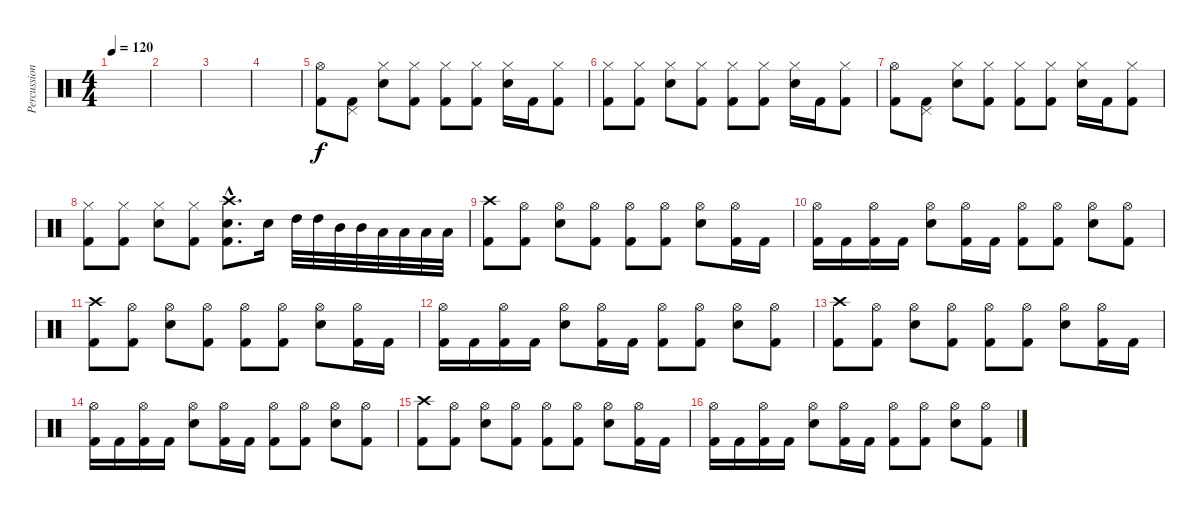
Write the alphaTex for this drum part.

\track ("Percussion" "Percussion") {instrument percussion}
\staff {score}
\articulation defaults
\ts (4 4)
\tempo 120
\clef neutral
\ks c
|
|
|
|
("Hi-Hat (open)" "Kick (hit) 2").8{volume 8} ("Pedal Hi-Hat (hit)" "Kick (hit) 2").8 ("Hi-Hat (closed)" "Snare (hit) 2").8 ("Hi-Hat (closed)" "Kick (hit) 2").8 ("Hi-Hat (closed)" "Kick (hit) 2").8 ("Hi-Hat (closed)" "Kick (hit) 2").8 ("Hi-Hat (closed)" "Snare (hit) 2").16 "Kick (hit) 2".16 ("Hi-Hat (closed)" "Kick (hit) 2").8 |
("Hi-Hat (closed)" "Kick (hit) 2").8 ("Hi-Hat (closed)" "Kick (hit) 2").8 ("Hi-Hat (closed)" "Snare (hit) 2").8 ("Hi-Hat (closed)" "Kick (hit) 2").8 ("Hi-Hat (closed)" "Kick (hit) 2").8 ("Hi-Hat (closed)" "Kick (hit) 2").8 ("Hi-Hat (closed)" "Snare (hit) 2").16 "Kick (hit) 2".16 ("Hi-Hat (closed)" "Kick (hit) 2").8 |
("Hi-Hat (open)" "Kick (hit) 2").8 ("Pedal Hi-Hat (hit)" "Kick (hit) 2").8 ("Hi-Hat (closed)" "Snare (hit) 2").8 ("Hi-Hat (closed)" "Kick (hit) 2").8 ("Hi-Hat (closed)" "Kick (hit) 2").8 ("Hi-Hat (closed)" "Kick (hit) 2").8 ("Hi-Hat (closed)" "Snare (hit) 2").16 "Kick (hit) 2".16 ("Hi-Hat (closed)" "Kick (hit) 2").8 |
("Hi-Hat (closed)" "Kick (hit) 2").8{volume 16} ("Hi-Hat (closed)" "Kick (hit) 2").8 ("Hi-Hat (closed)" "Snare (hit) 2").8 ("Hi-Hat (closed)" "Kick (hit) 2").8 ("Crash high (hit)"{hac} "Snare (hit) 2"{hac} "Kick (hit) 2"{hac}).8{d} "Snare (hit) 2".16 "High Tom (hit)".32 "High Tom (hit)".32 "Mid Tom (hit)".32 "Mid Tom (hit)".32 "Low Tom (hit)".32 "Low Tom (hit)".32 "Low Tom (hit)".32 "Low Tom (hit)".32 |
("Crash high (hit)" "Kick (hit) 2").8{volume 16} ("Hi-Hat (open)" "Kick (hit) 2").8 ("Hi-Hat (open)" "Snare (hit) 2").8 ("Hi-Hat (open)" "Kick (hit) 2").8 ("Hi-Hat (open)" "Kick (hit) 2").8 ("Hi-Hat (open)" "Kick (hit) 2").8 ("Hi-Hat (open)" "Snare (hit) 2").8 ("Hi-Hat (open)" "Kick (hit) 2").16 "Kick (hit) 2".16 |
("Hi-Hat (open)" "Kick (hit) 2").16 "Kick (hit) 2".16 ("Hi-Hat (open)" "Kick (hit) 2").16 "Kick (hit) 2".16 ("Hi-Hat (open)" "Snare (hit) 2").8 ("Hi-Hat (open)" "Kick (hit) 2").16 "Kick (hit) 2".16 ("Hi-Hat (open)" "Kick (hit) 2").8 ("Hi-Hat (open)" "Kick (hit) 2").8 ("Hi-Hat (open)" "Snare (hit) 2").8 ("Hi-Hat (open)" "Kick (hit) 2").8 |
("Crash high (hit)" "Kick (hit) 2").8{volume 16} ("Hi-Hat (open)" "Kick (hit) 2").8 ("Hi-Hat (open)" "Snare (hit) 2").8 ("Hi-Hat (open)" "Kick (hit) 2").8 ("Hi-Hat (open)" "Kick (hit) 2").8 ("Hi-Hat (open)" "Kick (hit) 2").8 ("Hi-Hat (open)" "Snare (hit) 2").8 ("Hi-Hat (open)" "Kick (hit) 2").16 "Kick (hit) 2".16 |
("Hi-Hat (open)" "Kick (hit) 2").16 "Kick (hit) 2".16 ("Hi-Hat (open)" "Kick (hit) 2").16 "Kick (hit) 2".16 ("Hi-Hat (open)" "Snare (hit) 2").8 ("Hi-Hat (open)" "Kick (hit) 2").16 "Kick (hit) 2".16 ("Hi-Hat (open)" "Kick (hit) 2").8 ("Hi-Hat (open)" "Kick (hit) 2").8 ("Hi-Hat (open)" "Snare (hit) 2").8 ("Hi-Hat (open)" "Kick (hit) 2").8 |
("Crash high (hit)" "Kick (hit) 2").8{volume 16} ("Hi-Hat (open)" "Kick (hit) 2").8 ("Hi-Hat (open)" "Snare (hit) 2").8 ("Hi-Hat (open)" "Kick (hit) 2").8 ("Hi-Hat (open)" "Kick (hit) 2").8 ("Hi-Hat (open)" "Kick (hit) 2").8 ("Hi-Hat (open)" "Snare (hit) 2").8 ("Hi-Hat (open)" "Kick (hit) 2").16 "Kick (hit) 2".16 |
("Hi-Hat (open)" "Kick (hit) 2").16 "Kick (hit) 2".16 ("Hi-Hat (open)" "Kick (hit) 2").16 "Kick (hit) 2".16 ("Hi-Hat (open)" "Snare (hit) 2").8 ("Hi-Hat (open)" "Kick (hit) 2").16 "Kick (hit) 2".16 ("Hi-Hat (open)" "Kick (hit) 2").8 ("Hi-Hat (open)" "Kick (hit) 2").8 ("Hi-Hat (open)" "Snare (hit) 2").8 ("Hi-Hat (open)" "Kick (hit) 2").8 |
("Crash high (hit)" "Kick (hit) 2").8{volume 16} ("Hi-Hat (open)" "Kick (hit) 2").8 ("Hi-Hat (open)" "Snare (hit) 2").8 ("Hi-Hat (open)" "Kick (hit) 2").8 ("Hi-Hat (open)" "Kick (hit) 2").8 ("Hi-Hat (open)" "Kick (hit) 2").8 ("Hi-Hat (open)" "Snare (hit) 2").8 ("Hi-Hat (open)" "Kick (hit) 2").16 "Kick (hit) 2".16 |
("Hi-Hat (open)" "Kick (hit) 2").16 "Kick (hit) 2".16 ("Hi-Hat (open)" "Kick (hit) 2").16 "Kick (hit) 2".16 ("Hi-Hat (open)" "Snare (hit) 2").8 ("Hi-Hat (open)" "Kick (hit) 2").16 "Kick (hit) 2".16 ("Hi-Hat (open)" "Kick (hit) 2").8 ("Hi-Hat (open)" "Kick (hit) 2").8 ("Hi-Hat (open)" "Snare (hit) 2").8 ("Hi-Hat (open)" "Kick (hit) 2").8
